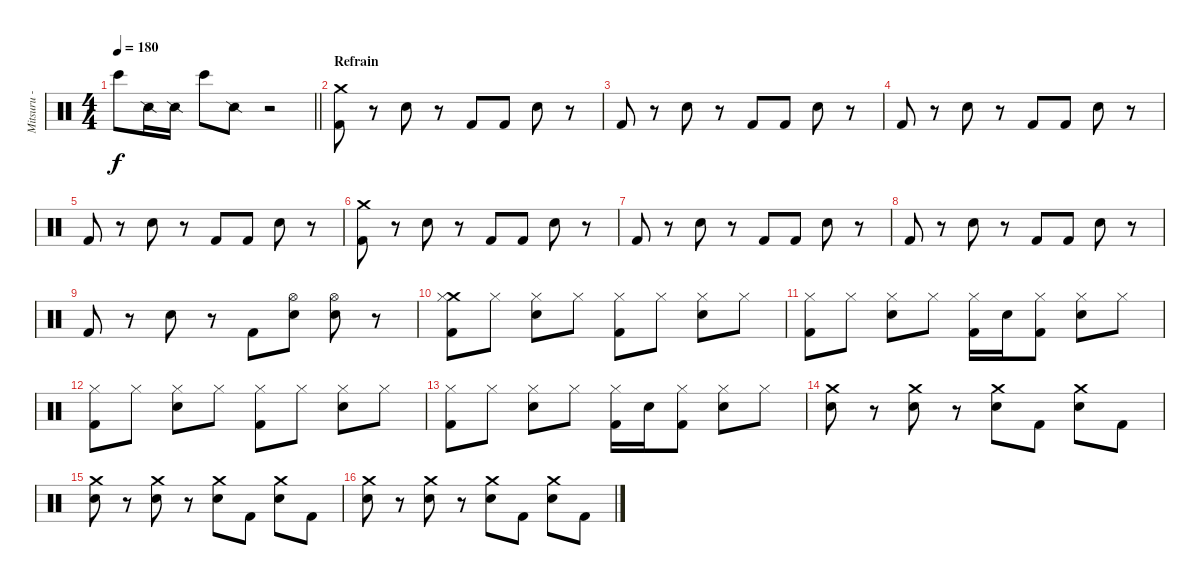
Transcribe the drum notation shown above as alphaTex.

\track ("Mitsuru - Batterie" "Mitsuru - ") {instrument percussion}
\staff {score}
\articulation defaults
\ts (4 4)
\tempo 180
\clef neutral
\barLineRight lightlight
\ks c "Bongo High (hit)".8{dy f} "Snare (side stick) 2".16 "Snare (side stick) 2".16 "Bongo High (hit)".8 "Snare (side stick) 2".8
r.2 |
\section ("" "Refrain")
("Crash medium (hit)" "Kick (hit) 2").8 r.8 "Electric Snare (hit)".8 r.8 "Kick (hit) 2".8 "Kick (hit) 2".8 "Electric Snare (hit)".8 r.8 |
"Kick (hit) 2".8 r.8 "Electric Snare (hit)".8 r.8 "Kick (hit) 2".8 "Kick (hit) 2".8 "Electric Snare (hit)".8 r.8 |
"Kick (hit) 2".8 r.8 "Electric Snare (hit)".8 r.8 "Kick (hit) 2".8 "Kick (hit) 2".8 "Electric Snare (hit)".8 r.8 |
"Kick (hit) 2".8 r.8 "Electric Snare (hit)".8 r.8 "Kick (hit) 2".8 "Kick (hit) 2".8 "Electric Snare (hit)".8 r.8 |
("Crash medium (hit)" "Kick (hit) 2").8 r.8 "Electric Snare (hit)".8 r.8 "Kick (hit) 2".8 "Kick (hit) 2".8 "Electric Snare (hit)".8 r.8 |
"Kick (hit) 2".8 r.8 "Electric Snare (hit)".8 r.8 "Kick (hit) 2".8 "Kick (hit) 2".8 "Electric Snare (hit)".8 r.8 |
"Kick (hit) 2".8 r.8 "Electric Snare (hit)".8 r.8 "Kick (hit) 2".8 "Kick (hit) 2".8 "Electric Snare (hit)".8 r.8 |
"Kick (hit) 2".8 r.8 "Electric Snare (hit)".8 r.8 "Kick (hit) 2".8 ("Hi-Hat (open)" "Electric Snare (hit)").8 ("Hi-Hat (open)" "Electric Snare (hit)").8 r.8 |
("Crash medium (hit)" "Hi-Hat (closed)" "Kick (hit) 2").8 "Hi-Hat (closed)".8 ("Hi-Hat (closed)" "Electric Snare (hit)").8 "Hi-Hat (closed)".8 ("Hi-Hat (closed)" "Kick (hit) 2").8 "Hi-Hat (closed)".8 ("Hi-Hat (closed)" "Electric Snare (hit)").8 "Hi-Hat (closed)".8 |
("Hi-Hat (closed)" "Kick (hit) 2").8 "Hi-Hat (closed)".8 ("Hi-Hat (closed)" "Electric Snare (hit)").8 "Hi-Hat (closed)".8 ("Hi-Hat (closed)" "Kick (hit) 2").16 "Electric Snare (hit)".16 ("Hi-Hat (closed)" "Kick (hit) 2").8 ("Hi-Hat (closed)" "Electric Snare (hit)").8 "Hi-Hat (closed)".8 |
("Hi-Hat (closed)" "Kick (hit) 2").8 "Hi-Hat (closed)".8 ("Hi-Hat (closed)" "Electric Snare (hit)").8 "Hi-Hat (closed)".8 ("Hi-Hat (closed)" "Kick (hit) 2").8 "Hi-Hat (closed)".8 ("Hi-Hat (closed)" "Electric Snare (hit)").8 "Hi-Hat (closed)".8 |
("Hi-Hat (closed)" "Kick (hit) 2").8 "Hi-Hat (closed)".8 ("Hi-Hat (closed)" "Electric Snare (hit)").8 "Hi-Hat (closed)".8 ("Hi-Hat (closed)" "Kick (hit) 2").16 "Electric Snare (hit)".16 ("Hi-Hat (closed)" "Kick (hit) 2").8 ("Hi-Hat (closed)" "Electric Snare (hit)").8 "Hi-Hat (closed)".8 |
("Crash medium (hit)" "Electric Snare (hit)").8 r.8 ("Crash medium (hit)" "Electric Snare (hit)").8 r.8 ("Crash medium (hit)" "Electric Snare (hit)").8 "Kick (hit) 2".8 ("Crash medium (hit)" "Electric Snare (hit)").8 "Kick (hit) 2".8 |
("Crash medium (hit)" "Electric Snare (hit)").8 r.8 ("Crash medium (hit)" "Electric Snare (hit)").8 r.8 ("Crash medium (hit)" "Electric Snare (hit)").8 "Kick (hit) 2".8 ("Crash medium (hit)" "Electric Snare (hit)").8 "Kick (hit) 2".8 |
("Crash medium (hit)" "Electric Snare (hit)").8 r.8 ("Crash medium (hit)" "Electric Snare (hit)").8 r.8 ("Crash medium (hit)" "Electric Snare (hit)").8 "Kick (hit) 2".8 ("Crash medium (hit)" "Electric Snare (hit)").8 "Kick (hit) 2".8
